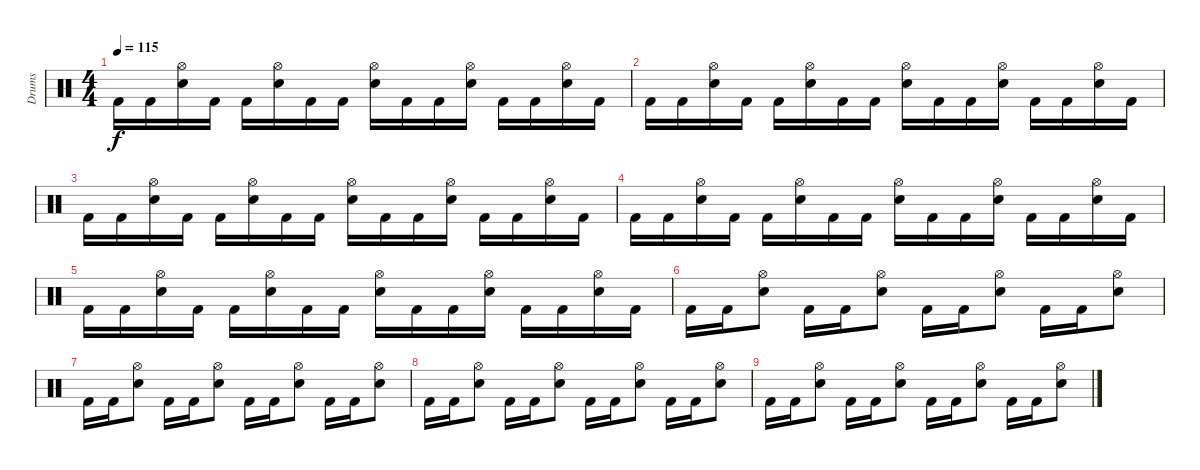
\track ("Drums" "Drums") {instrument percussion}
\staff {score}
\articulation defaults
\ts (4 4)
\tempo 115
\clef neutral
\ks c "Kick (hit) 2".16{dy f} "Kick (hit) 2".16
("Snare (hit) 2" "Hi-Hat (open)").16 "Kick (hit) 2".16 "Kick (hit) 2".16 ("Snare (hit) 2" "Hi-Hat (open)").16 "Kick (hit) 2".16 "Kick (hit) 2".16 ("Snare (hit) 2" "Hi-Hat (open)").16 "Kick (hit) 2".16 "Kick (hit) 2".16 ("Snare (hit) 2" "Hi-Hat (open)").16 "Kick (hit) 2".16 "Kick (hit) 2".16 ("Snare (hit) 2" "Hi-Hat (open)").16 "Kick (hit) 2".16 |
"Kick (hit) 2".16 "Kick (hit) 2".16 ("Snare (hit) 2" "Hi-Hat (open)").16 "Kick (hit) 2".16 "Kick (hit) 2".16 ("Snare (hit) 2" "Hi-Hat (open)").16 "Kick (hit) 2".16 "Kick (hit) 2".16 ("Snare (hit) 2" "Hi-Hat (open)").16 "Kick (hit) 2".16 "Kick (hit) 2".16 ("Snare (hit) 2" "Hi-Hat (open)").16 "Kick (hit) 2".16 "Kick (hit) 2".16 ("Snare (hit) 2" "Hi-Hat (open)").16 "Kick (hit) 2".16 |
"Kick (hit) 2".16 "Kick (hit) 2".16 ("Snare (hit) 2" "Hi-Hat (open)").16 "Kick (hit) 2".16 "Kick (hit) 2".16 ("Snare (hit) 2" "Hi-Hat (open)").16 "Kick (hit) 2".16 "Kick (hit) 2".16 ("Snare (hit) 2" "Hi-Hat (open)").16 "Kick (hit) 2".16 "Kick (hit) 2".16 ("Snare (hit) 2" "Hi-Hat (open)").16 "Kick (hit) 2".16 "Kick (hit) 2".16 ("Snare (hit) 2" "Hi-Hat (open)").16 "Kick (hit) 2".16 |
"Kick (hit) 2".16 "Kick (hit) 2".16 ("Snare (hit) 2" "Hi-Hat (open)").16 "Kick (hit) 2".16 "Kick (hit) 2".16 ("Snare (hit) 2" "Hi-Hat (open)").16 "Kick (hit) 2".16 "Kick (hit) 2".16 ("Snare (hit) 2" "Hi-Hat (open)").16 "Kick (hit) 2".16 "Kick (hit) 2".16 ("Snare (hit) 2" "Hi-Hat (open)").16 "Kick (hit) 2".16 "Kick (hit) 2".16 ("Snare (hit) 2" "Hi-Hat (open)").16 "Kick (hit) 2".16 |
"Kick (hit) 2".16 "Kick (hit) 2".16 ("Snare (hit) 2" "Hi-Hat (open)").16 "Kick (hit) 2".16 "Kick (hit) 2".16 ("Snare (hit) 2" "Hi-Hat (open)").16 "Kick (hit) 2".16 "Kick (hit) 2".16 ("Snare (hit) 2" "Hi-Hat (open)").16 "Kick (hit) 2".16 "Kick (hit) 2".16 ("Snare (hit) 2" "Hi-Hat (open)").16 "Kick (hit) 2".16 "Kick (hit) 2".16 ("Snare (hit) 2" "Hi-Hat (open)").16 "Kick (hit) 2".16 |
"Kick (hit) 2".16 "Kick (hit) 2".16 ("Snare (hit) 2" "Hi-Hat (open)").8 "Kick (hit) 2".16 "Kick (hit) 2".16 ("Snare (hit) 2" "Hi-Hat (open)").8 "Kick (hit) 2".16 "Kick (hit) 2".16 ("Snare (hit) 2" "Hi-Hat (open)").8 "Kick (hit) 2".16 "Kick (hit) 2".16 ("Snare (hit) 2" "Hi-Hat (open)").8 |
"Kick (hit) 2".16 "Kick (hit) 2".16 ("Snare (hit) 2" "Hi-Hat (open)").8 "Kick (hit) 2".16 "Kick (hit) 2".16 ("Snare (hit) 2" "Hi-Hat (open)").8 "Kick (hit) 2".16 "Kick (hit) 2".16 ("Snare (hit) 2" "Hi-Hat (open)").8 "Kick (hit) 2".16 "Kick (hit) 2".16 ("Snare (hit) 2" "Hi-Hat (open)").8 |
"Kick (hit) 2".16 "Kick (hit) 2".16 ("Snare (hit) 2" "Hi-Hat (open)").8 "Kick (hit) 2".16 "Kick (hit) 2".16 ("Snare (hit) 2" "Hi-Hat (open)").8 "Kick (hit) 2".16 "Kick (hit) 2".16 ("Snare (hit) 2" "Hi-Hat (open)").8 "Kick (hit) 2".16 "Kick (hit) 2".16 ("Snare (hit) 2" "Hi-Hat (open)").8 |
"Kick (hit) 2".16 "Kick (hit) 2".16 ("Snare (hit) 2" "Hi-Hat (open)").8 "Kick (hit) 2".16 "Kick (hit) 2".16 ("Snare (hit) 2" "Hi-Hat (open)").8 "Kick (hit) 2".16 "Kick (hit) 2".16 ("Snare (hit) 2" "Hi-Hat (open)").8 "Kick (hit) 2".16 "Kick (hit) 2".16 ("Snare (hit) 2" "Hi-Hat (open)").8
